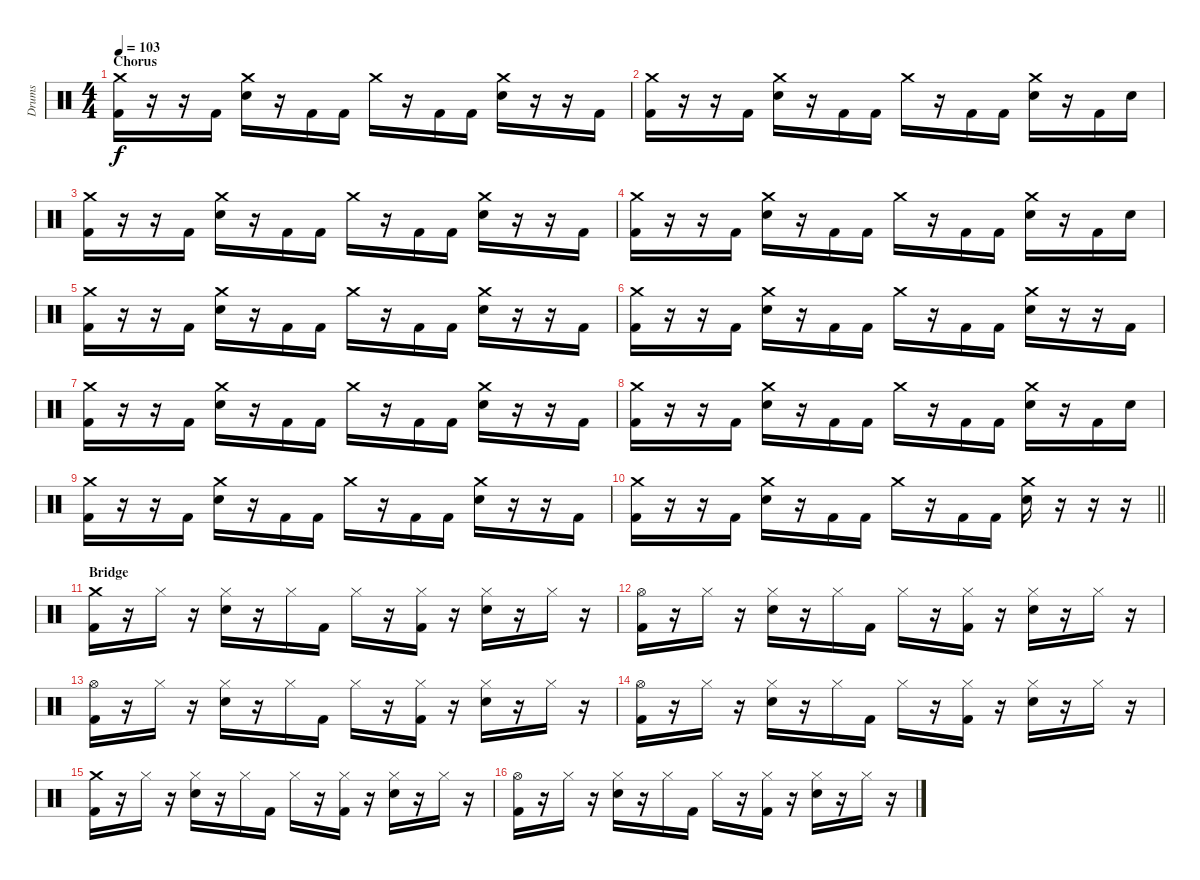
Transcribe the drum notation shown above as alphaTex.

\track ("Drums" "Drums") {instrument percussion}
\staff {score}
\articulation defaults
\ts (4 4)
\section ("" "Chorus")
\tempo 103
\clef neutral
\ks c
("Crash medium (hit)" "Kick (hit) 2").16{dy f} r.16 r.16 "Kick (hit) 2".16 ("Crash medium (hit)" "Electric Snare (hit)").16 r.16 "Kick (hit) 2".16 "Kick (hit) 2".16 "Crash medium (hit)".16 r.16 "Kick (hit) 2".16 "Kick (hit) 2".16 ("Crash medium (hit)" "Electric Snare (hit)").16 r.16 r.16 "Kick (hit) 2".16 |
("Crash medium (hit)" "Kick (hit) 2").16 r.16 r.16 "Kick (hit) 2".16 ("Crash medium (hit)" "Electric Snare (hit)").16 r.16 "Kick (hit) 2".16 "Kick (hit) 2".16 "Crash medium (hit)".16 r.16 "Kick (hit) 2".16 "Kick (hit) 2".16 ("Crash medium (hit)" "Electric Snare (hit)").16 r.16 "Kick (hit) 2".16 "Electric Snare (hit)".16 |
("Crash medium (hit)" "Kick (hit) 2").16 r.16 r.16 "Kick (hit) 2".16 ("Crash medium (hit)" "Electric Snare (hit)").16 r.16 "Kick (hit) 2".16 "Kick (hit) 2".16 "Crash medium (hit)".16 r.16 "Kick (hit) 2".16 "Kick (hit) 2".16 ("Crash medium (hit)" "Electric Snare (hit)").16 r.16 r.16 "Kick (hit) 2".16 |
("Crash medium (hit)" "Kick (hit) 2").16 r.16 r.16 "Kick (hit) 2".16 ("Crash medium (hit)" "Electric Snare (hit)").16 r.16 "Kick (hit) 2".16 "Kick (hit) 2".16 "Crash medium (hit)".16 r.16 "Kick (hit) 2".16 "Kick (hit) 2".16 ("Crash medium (hit)" "Electric Snare (hit)").16 r.16 "Kick (hit) 2".16 "Electric Snare (hit)".16 |
("Crash medium (hit)" "Kick (hit) 2").16 r.16 r.16 "Kick (hit) 2".16 ("Crash medium (hit)" "Electric Snare (hit)").16 r.16 "Kick (hit) 2".16 "Kick (hit) 2".16 "Crash medium (hit)".16 r.16 "Kick (hit) 2".16 "Kick (hit) 2".16 ("Crash medium (hit)" "Electric Snare (hit)").16 r.16 r.16 "Kick (hit) 2".16 |
("Crash medium (hit)" "Kick (hit) 2").16 r.16 r.16 "Kick (hit) 2".16 ("Crash medium (hit)" "Electric Snare (hit)").16 r.16 "Kick (hit) 2".16 "Kick (hit) 2".16 "Crash medium (hit)".16 r.16 "Kick (hit) 2".16 "Kick (hit) 2".16 ("Crash medium (hit)" "Electric Snare (hit)").16 r.16 r.16 "Kick (hit) 2".16 |
("Crash medium (hit)" "Kick (hit) 2").16 r.16 r.16 "Kick (hit) 2".16 ("Crash medium (hit)" "Electric Snare (hit)").16 r.16 "Kick (hit) 2".16 "Kick (hit) 2".16 "Crash medium (hit)".16 r.16 "Kick (hit) 2".16 "Kick (hit) 2".16 ("Crash medium (hit)" "Electric Snare (hit)").16 r.16 r.16 "Kick (hit) 2".16 |
("Crash medium (hit)" "Kick (hit) 2").16 r.16 r.16 "Kick (hit) 2".16 ("Crash medium (hit)" "Electric Snare (hit)").16 r.16 "Kick (hit) 2".16 "Kick (hit) 2".16 "Crash medium (hit)".16 r.16 "Kick (hit) 2".16 "Kick (hit) 2".16 ("Crash medium (hit)" "Electric Snare (hit)").16 r.16 "Kick (hit) 2".16 "Electric Snare (hit)".16 |
("Crash medium (hit)" "Kick (hit) 2").16 r.16 r.16 "Kick (hit) 2".16 ("Crash medium (hit)" "Electric Snare (hit)").16 r.16 "Kick (hit) 2".16 "Kick (hit) 2".16 "Crash medium (hit)".16 r.16 "Kick (hit) 2".16 "Kick (hit) 2".16 ("Crash medium (hit)" "Electric Snare (hit)").16 r.16 r.16 "Kick (hit) 2".16 |
\barLineRight lightlight
("Crash medium (hit)" "Kick (hit) 2").16 r.16 r.16 "Kick (hit) 2".16 ("Crash medium (hit)" "Electric Snare (hit)").16 r.16 "Kick (hit) 2".16 "Kick (hit) 2".16 "Crash medium (hit)".16 r.16 "Kick (hit) 2".16 "Kick (hit) 2".16 ("Crash medium (hit)" "Electric Snare (hit)").16 r.16 r.16 r.16 |
\section ("" "Bridge")
("Crash medium (hit)" "Kick (hit) 2").16 r.16 "Hi-Hat (closed)".16 r.16 ("Hi-Hat (closed)" "Electric Snare (hit)").16 r.16 "Hi-Hat (closed)".16 "Kick (hit) 2".16 "Hi-Hat (closed)".16 r.16 ("Hi-Hat (closed)" "Kick (hit) 2").16 r.16 ("Hi-Hat (closed)" "Electric Snare (hit)").16 r.16 "Hi-Hat (closed)".16 r.16 |
("Hi-Hat (open)" "Kick (hit) 2").16 r.16 "Hi-Hat (closed)".16 r.16 ("Hi-Hat (closed)" "Electric Snare (hit)").16 r.16 "Hi-Hat (closed)".16 "Kick (hit) 2".16 "Hi-Hat (closed)".16 r.16 ("Hi-Hat (closed)" "Kick (hit) 2").16 r.16 ("Hi-Hat (closed)" "Electric Snare (hit)").16 r.16 "Hi-Hat (closed)".16 r.16 |
("Hi-Hat (open)" "Kick (hit) 2").16 r.16 "Hi-Hat (closed)".16 r.16 ("Hi-Hat (closed)" "Electric Snare (hit)").16 r.16 "Hi-Hat (closed)".16 "Kick (hit) 2".16 "Hi-Hat (closed)".16 r.16 ("Hi-Hat (closed)" "Kick (hit) 2").16 r.16 ("Hi-Hat (closed)" "Electric Snare (hit)").16 r.16 "Hi-Hat (closed)".16 r.16 |
("Hi-Hat (open)" "Kick (hit) 2").16 r.16 "Hi-Hat (closed)".16 r.16 ("Hi-Hat (closed)" "Electric Snare (hit)").16 r.16 "Hi-Hat (closed)".16 "Kick (hit) 2".16 "Hi-Hat (closed)".16 r.16 ("Hi-Hat (closed)" "Kick (hit) 2").16 r.16 ("Hi-Hat (closed)" "Electric Snare (hit)").16 r.16 "Hi-Hat (closed)".16 r.16 |
("Crash medium (hit)" "Kick (hit) 2").16 r.16 "Hi-Hat (closed)".16 r.16 ("Hi-Hat (closed)" "Electric Snare (hit)").16 r.16 "Hi-Hat (closed)".16 "Kick (hit) 2".16 "Hi-Hat (closed)".16 r.16 ("Hi-Hat (closed)" "Kick (hit) 2").16 r.16 ("Hi-Hat (closed)" "Electric Snare (hit)").16 r.16 "Hi-Hat (closed)".16 r.16 |
("Hi-Hat (open)" "Kick (hit) 2").16 r.16 "Hi-Hat (closed)".16 r.16 ("Hi-Hat (closed)" "Electric Snare (hit)").16 r.16 "Hi-Hat (closed)".16 "Kick (hit) 2".16 "Hi-Hat (closed)".16 r.16 ("Hi-Hat (closed)" "Kick (hit) 2").16 r.16 ("Hi-Hat (closed)" "Electric Snare (hit)").16 r.16 "Hi-Hat (closed)".16 r.16
